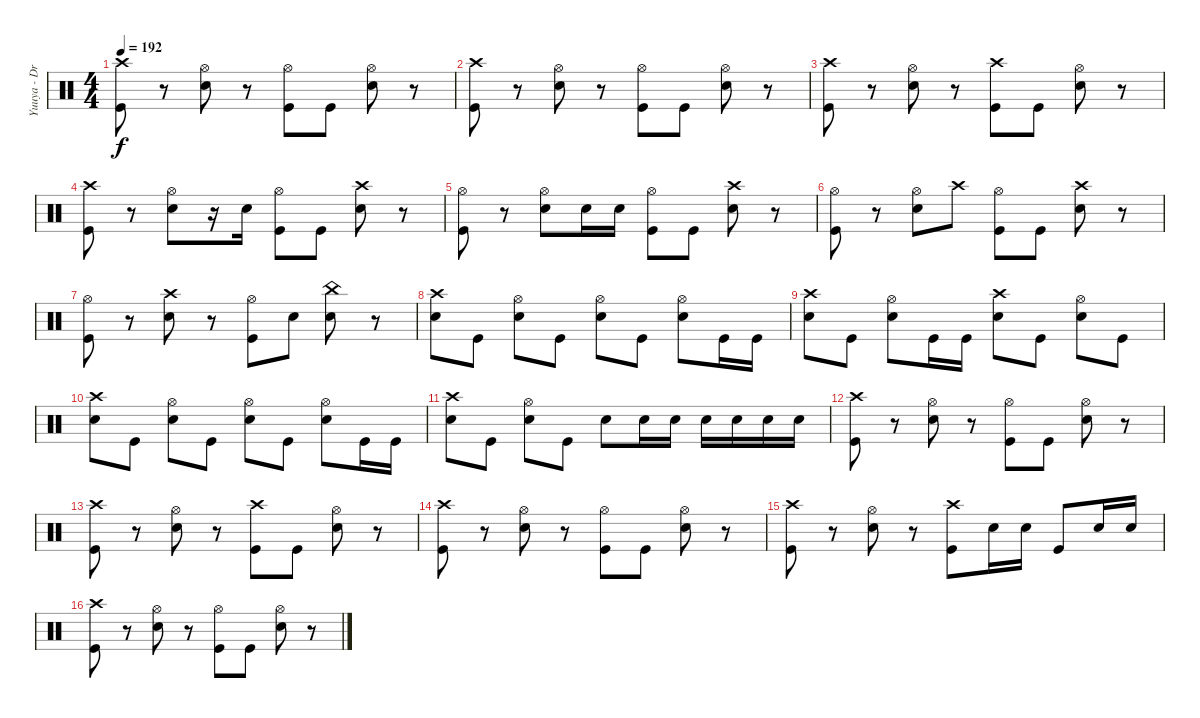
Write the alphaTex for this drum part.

\track ("Yuuya - Drums" "Yuuya - Dr") {instrument percussion}
\staff {score}
\articulation defaults
\ts (4 4)
\tempo 192
\clef neutral
\ks c
("Kick (hit)" "Crash high (hit)").8{dy f} r.8 ("Electric Snare (hit)" "Hi-Hat (open)").8 r.8 ("Kick (hit)" "Hi-Hat (open)").8 "Kick (hit)".8 ("Electric Snare (hit)" "Hi-Hat (open)").8 r.8 |
("Kick (hit)" "Crash high (hit)").8 r.8 ("Electric Snare (hit)" "Hi-Hat (open)").8 r.8 ("Kick (hit)" "Hi-Hat (open)").8 "Kick (hit)".8 ("Electric Snare (hit)" "Hi-Hat (open)").8 r.8 |
("Kick (hit)" "Crash high (hit)").8 r.8 ("Electric Snare (hit)" "Hi-Hat (open)").8 r.8 ("Kick (hit)" "Crash high (hit)").8 "Kick (hit)".8 ("Electric Snare (hit)" "Hi-Hat (open)").8 r.8 |
("Kick (hit)" "Crash high (hit)").8 r.8 ("Electric Snare (hit)" "Hi-Hat (open)").8 r.16 "Electric Snare (hit)".16 ("Kick (hit)" "Hi-Hat (open)").8 "Kick (hit)".8 ("Electric Snare (hit)" "Crash high (hit)").8 r.8 |
("Kick (hit)" "Hi-Hat (open)").8 r.8 ("Electric Snare (hit)" "Hi-Hat (open)").8 "Electric Snare (hit)".16 "Electric Snare (hit)".16 ("Kick (hit)" "Hi-Hat (open)").8 "Kick (hit)".8 ("Electric Snare (hit)" "Crash high (hit)").8 r.8 |
("Kick (hit)" "Hi-Hat (open)").8 r.8 ("Electric Snare (hit)" "Hi-Hat (open)").8 "Crash high (hit)".8 ("Kick (hit)" "Hi-Hat (open)").8 "Kick (hit)".8 ("Electric Snare (hit)" "Crash high (hit)").8 r.8 |
("Kick (hit)" "Hi-Hat (open)").8 r.8 ("Electric Snare (hit)" "Crash high (hit)").8 r.8 ("Kick (hit)" "Hi-Hat (open)").8 "Electric Snare (hit)".8 ("Electric Snare (hit)" "China (hit)").8 r.8 |
("Electric Snare (hit)" "Crash high (hit)").8 "Kick (hit)".8 ("Electric Snare (hit)" "Hi-Hat (open)").8 "Kick (hit)".8 ("Electric Snare (hit)" "Hi-Hat (open)").8 "Kick (hit)".8 ("Electric Snare (hit)" "Hi-Hat (open)").8 "Kick (hit)".16 "Kick (hit)".16 |
("Electric Snare (hit)" "Crash high (hit)").8 "Kick (hit)".8 ("Electric Snare (hit)" "Hi-Hat (open)").8 "Kick (hit)".16 "Kick (hit)".16 ("Electric Snare (hit)" "Crash high (hit)").8 "Kick (hit)".8 ("Electric Snare (hit)" "Hi-Hat (open)").8 "Kick (hit)".8 |
("Electric Snare (hit)" "Crash high (hit)").8 "Kick (hit)".8 ("Electric Snare (hit)" "Hi-Hat (open)").8 "Kick (hit)".8 ("Electric Snare (hit)" "Hi-Hat (open)").8 "Kick (hit)".8 ("Electric Snare (hit)" "Hi-Hat (open)").8 "Kick (hit)".16 "Kick (hit)".16 |
("Electric Snare (hit)" "Crash high (hit)").8 "Kick (hit)".8 ("Electric Snare (hit)" "Hi-Hat (open)").8 "Kick (hit)".8 "Electric Snare (hit)".8 "Electric Snare (hit)".16 "Electric Snare (hit)".16 "Electric Snare (hit)".16 "Electric Snare (hit)".16 "Electric Snare (hit)".16 "Electric Snare (hit)".16 |
("Kick (hit)" "Crash high (hit)").8 r.8 ("Electric Snare (hit)" "Hi-Hat (open)").8 r.8 ("Kick (hit)" "Hi-Hat (open)").8 "Kick (hit)".8 ("Electric Snare (hit)" "Hi-Hat (open)").8 r.8 |
("Kick (hit)" "Crash high (hit)").8 r.8 ("Electric Snare (hit)" "Hi-Hat (open)").8 r.8 ("Kick (hit)" "Crash high (hit)").8 "Kick (hit)".8 ("Electric Snare (hit)" "Hi-Hat (open)").8 r.8 |
("Kick (hit)" "Crash high (hit)").8 r.8 ("Electric Snare (hit)" "Hi-Hat (open)").8 r.8 ("Kick (hit)" "Hi-Hat (open)").8 "Kick (hit)".8 ("Electric Snare (hit)" "Hi-Hat (open)").8 r.8 |
("Kick (hit)" "Crash high (hit)").8 r.8 ("Electric Snare (hit)" "Hi-Hat (open)").8 r.8 ("Kick (hit)" "Crash high (hit)").8 "Electric Snare (hit)".16 "Electric Snare (hit)".16 "Kick (hit)".8 "Electric Snare (hit)".16 "Electric Snare (hit)".16 |
("Kick (hit)" "Crash high (hit)").8 r.8 ("Electric Snare (hit)" "Hi-Hat (open)").8 r.8 ("Kick (hit)" "Hi-Hat (open)").8 "Kick (hit)".8 ("Electric Snare (hit)" "Hi-Hat (open)").8 r.8
